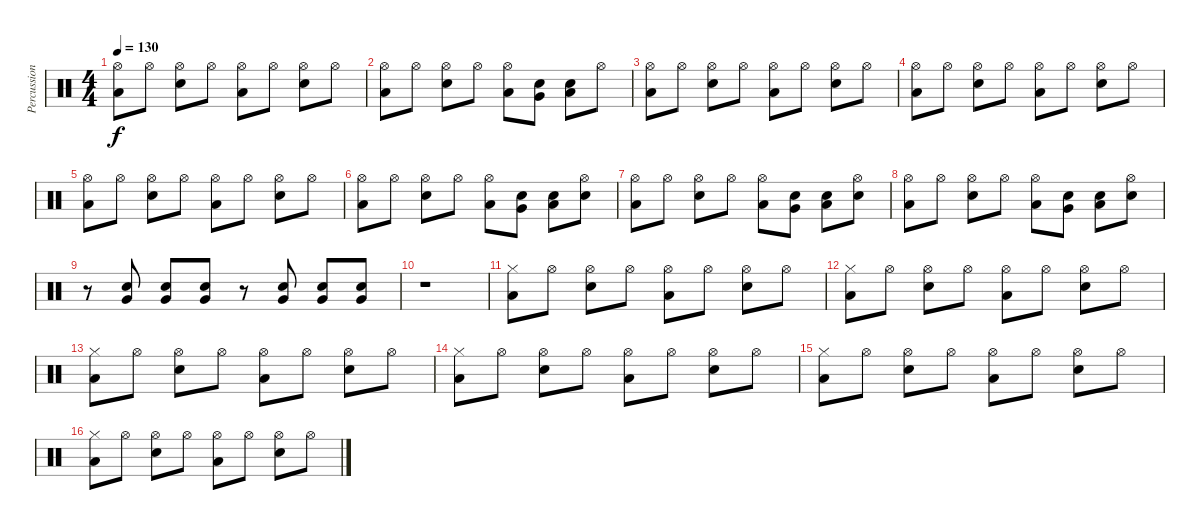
\track ("Percussion" "Percussion") {instrument percussion}
\staff {score}
\articulation defaults
\ts (4 4)
\tempo 130
\clef neutral
\ks c
("Hi-Hat (open)" "Low Floor Tom (hit)").8{dy f} "Hi-Hat (open)".8 ("Hi-Hat (open)" "Snare (hit) 2").8 "Hi-Hat (open)".8 ("Hi-Hat (open)" "Low Floor Tom (hit)").8 "Hi-Hat (open)".8 ("Hi-Hat (open)" "Snare (hit) 2").8 "Hi-Hat (open)".8 |
("Hi-Hat (open)" "Low Floor Tom (hit)").8 "Hi-Hat (open)".8 ("Hi-Hat (open)" "Snare (hit) 2").8 "Hi-Hat (open)".8 ("Hi-Hat (open)" "Low Floor Tom (hit)").8 ("Snare (hit) 2" "Very Low Tom (hit)").8 ("Snare (hit) 2" "Low Floor Tom (hit)").8 "Hi-Hat (open)".8 |
("Hi-Hat (open)" "Low Floor Tom (hit)").8 "Hi-Hat (open)".8 ("Hi-Hat (open)" "Snare (hit) 2").8 "Hi-Hat (open)".8 ("Hi-Hat (open)" "Low Floor Tom (hit)").8 "Hi-Hat (open)".8 ("Hi-Hat (open)" "Snare (hit) 2").8 "Hi-Hat (open)".8 |
("Hi-Hat (open)" "Low Floor Tom (hit)").8 "Hi-Hat (open)".8 ("Hi-Hat (open)" "Snare (hit) 2").8 "Hi-Hat (open)".8 ("Hi-Hat (open)" "Low Floor Tom (hit)").8 "Hi-Hat (open)".8 ("Hi-Hat (open)" "Snare (hit) 2").8 "Hi-Hat (open)".8 |
("Hi-Hat (open)" "Low Floor Tom (hit)").8 "Hi-Hat (open)".8 ("Hi-Hat (open)" "Snare (hit) 2").8 "Hi-Hat (open)".8 ("Hi-Hat (open)" "Low Floor Tom (hit)").8 "Hi-Hat (open)".8 ("Hi-Hat (open)" "Snare (hit) 2").8 "Hi-Hat (open)".8 |
("Hi-Hat (open)" "Low Floor Tom (hit)").8 "Hi-Hat (open)".8 ("Hi-Hat (open)" "Snare (hit) 2").8 "Hi-Hat (open)".8 ("Hi-Hat (open)" "Low Floor Tom (hit)").8 ("Snare (hit) 2" "Very Low Tom (hit)").8 ("Snare (hit) 2" "Low Floor Tom (hit)").8 ("Hi-Hat (open)" "Snare (hit) 2").8 |
("Hi-Hat (open)" "Low Floor Tom (hit)").8 "Hi-Hat (open)".8 ("Hi-Hat (open)" "Snare (hit) 2").8 "Hi-Hat (open)".8 ("Hi-Hat (open)" "Low Floor Tom (hit)").8 ("Snare (hit) 2" "Very Low Tom (hit)").8 ("Snare (hit) 2" "Low Floor Tom (hit)").8 ("Hi-Hat (open)" "Snare (hit) 2").8 |
("Hi-Hat (open)" "Low Floor Tom (hit)").8 "Hi-Hat (open)".8 ("Hi-Hat (open)" "Snare (hit) 2").8 "Hi-Hat (open)".8 ("Hi-Hat (open)" "Low Floor Tom (hit)").8 ("Snare (hit) 2" "Very Low Tom (hit)").8 ("Snare (hit) 2" "Low Floor Tom (hit)").8 ("Hi-Hat (open)" "Snare (hit) 2").8 |
r.8 ("Snare (hit) 2" "Very Low Tom (hit)").8 ("Snare (hit) 2" "Very Low Tom (hit)").8 ("Snare (hit) 2" "Very Low Tom (hit)").8 r.8 ("Snare (hit) 2" "Very Low Tom (hit)").8 ("Snare (hit) 2" "Very Low Tom (hit)").8 ("Snare (hit) 2" "Very Low Tom (hit)").8 |
r.1 |
("Hi-Hat (closed)" "Low Floor Tom (hit)").8 "Hi-Hat (open)".8 ("Hi-Hat (open)" "Snare (hit) 2").8 "Hi-Hat (open)".8 ("Hi-Hat (open)" "Low Floor Tom (hit)").8 "Hi-Hat (open)".8 ("Hi-Hat (open)" "Snare (hit) 2").8 "Hi-Hat (open)".8 |
("Hi-Hat (closed)" "Low Floor Tom (hit)").8 "Hi-Hat (open)".8 ("Hi-Hat (open)" "Snare (hit) 2").8 "Hi-Hat (open)".8 ("Hi-Hat (open)" "Low Floor Tom (hit)").8 "Hi-Hat (open)".8 ("Hi-Hat (open)" "Snare (hit) 2").8 "Hi-Hat (open)".8 |
("Hi-Hat (closed)" "Low Floor Tom (hit)").8 "Hi-Hat (open)".8 ("Hi-Hat (open)" "Snare (hit) 2").8 "Hi-Hat (open)".8 ("Hi-Hat (open)" "Low Floor Tom (hit)").8 "Hi-Hat (open)".8 ("Hi-Hat (open)" "Snare (hit) 2").8 "Hi-Hat (open)".8 |
("Hi-Hat (closed)" "Low Floor Tom (hit)").8 "Hi-Hat (open)".8 ("Hi-Hat (open)" "Snare (hit) 2").8 "Hi-Hat (open)".8 ("Hi-Hat (open)" "Low Floor Tom (hit)").8 "Hi-Hat (open)".8 ("Hi-Hat (open)" "Snare (hit) 2").8 "Hi-Hat (open)".8 |
("Hi-Hat (closed)" "Low Floor Tom (hit)").8 "Hi-Hat (open)".8 ("Hi-Hat (open)" "Snare (hit) 2").8 "Hi-Hat (open)".8 ("Hi-Hat (open)" "Low Floor Tom (hit)").8 "Hi-Hat (open)".8 ("Hi-Hat (open)" "Snare (hit) 2").8 "Hi-Hat (open)".8 |
("Hi-Hat (closed)" "Low Floor Tom (hit)").8 "Hi-Hat (open)".8 ("Hi-Hat (open)" "Snare (hit) 2").8 "Hi-Hat (open)".8 ("Hi-Hat (open)" "Low Floor Tom (hit)").8 "Hi-Hat (open)".8 ("Hi-Hat (open)" "Snare (hit) 2").8 "Hi-Hat (open)".8
